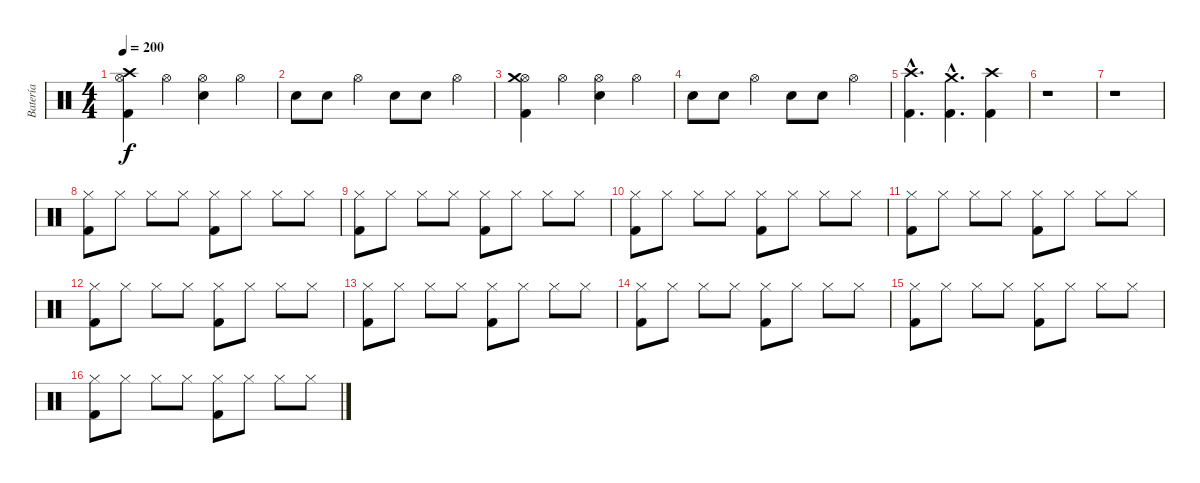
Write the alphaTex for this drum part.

\track ("Batería" "Batería") {instrument percussion}
\staff {score}
\articulation defaults
\ts (4 4)
\tempo 200
\clef neutral
\ks c
("Kick (hit) 2" "Hi-Hat (open)" "Crash high (hit)").4{dy f} "Hi-Hat (open)".4 ("Electric Snare (hit)" "Hi-Hat (open)").4 "Hi-Hat (open)".4 |
"Electric Snare (hit)".8 "Electric Snare (hit)".8 "Hi-Hat (open)".4 "Electric Snare (hit)".8 "Electric Snare (hit)".8 "Hi-Hat (open)".4 |
("Kick (hit) 2" "Hi-Hat (open)" "Crash medium (hit)").4 "Hi-Hat (open)".4 ("Electric Snare (hit)" "Hi-Hat (open)").4 "Hi-Hat (open)".4 |
"Electric Snare (hit)".8 "Electric Snare (hit)".8 "Hi-Hat (open)".4 "Electric Snare (hit)".8 "Electric Snare (hit)".8 "Hi-Hat (open)".4 |
("Kick (hit) 2"{hac} "Crash high (hit)"{hac}).4{d} ("Kick (hit) 2"{hac} "Crash medium (hit)"{hac}).4{d} ("Kick (hit) 2" "Crash high (hit)").4 |
r.1 |
r.1 |
("Kick (hit) 2" "Hi-Hat (closed)").8 "Hi-Hat (closed)".8 "Hi-Hat (closed)".8 "Hi-Hat (closed)".8 ("Kick (hit) 2" "Hi-Hat (closed)").8 "Hi-Hat (closed)".8 "Hi-Hat (closed)".8 "Hi-Hat (closed)".8 |
("Kick (hit) 2" "Hi-Hat (closed)").8 "Hi-Hat (closed)".8 "Hi-Hat (closed)".8 "Hi-Hat (closed)".8 ("Kick (hit) 2" "Hi-Hat (closed)").8 "Hi-Hat (closed)".8 "Hi-Hat (closed)".8 "Hi-Hat (closed)".8 |
("Kick (hit) 2" "Hi-Hat (closed)").8 "Hi-Hat (closed)".8 "Hi-Hat (closed)".8 "Hi-Hat (closed)".8 ("Kick (hit) 2" "Hi-Hat (closed)").8 "Hi-Hat (closed)".8 "Hi-Hat (closed)".8 "Hi-Hat (closed)".8 |
("Kick (hit) 2" "Hi-Hat (closed)").8 "Hi-Hat (closed)".8 "Hi-Hat (closed)".8 "Hi-Hat (closed)".8 ("Kick (hit) 2" "Hi-Hat (closed)").8 "Hi-Hat (closed)".8 "Hi-Hat (closed)".8 "Hi-Hat (closed)".8 |
("Kick (hit) 2" "Hi-Hat (closed)").8 "Hi-Hat (closed)".8 "Hi-Hat (closed)".8 "Hi-Hat (closed)".8 ("Kick (hit) 2" "Hi-Hat (closed)").8 "Hi-Hat (closed)".8 "Hi-Hat (closed)".8 "Hi-Hat (closed)".8 |
("Kick (hit) 2" "Hi-Hat (closed)").8 "Hi-Hat (closed)".8 "Hi-Hat (closed)".8 "Hi-Hat (closed)".8 ("Kick (hit) 2" "Hi-Hat (closed)").8 "Hi-Hat (closed)".8 "Hi-Hat (closed)".8 "Hi-Hat (closed)".8 |
("Kick (hit) 2" "Hi-Hat (closed)").8 "Hi-Hat (closed)".8 "Hi-Hat (closed)".8 "Hi-Hat (closed)".8 ("Kick (hit) 2" "Hi-Hat (closed)").8 "Hi-Hat (closed)".8 "Hi-Hat (closed)".8 "Hi-Hat (closed)".8 |
("Kick (hit) 2" "Hi-Hat (closed)").8 "Hi-Hat (closed)".8 "Hi-Hat (closed)".8 "Hi-Hat (closed)".8 ("Kick (hit) 2" "Hi-Hat (closed)").8 "Hi-Hat (closed)".8 "Hi-Hat (closed)".8 "Hi-Hat (closed)".8 |
("Kick (hit) 2" "Hi-Hat (closed)").8 "Hi-Hat (closed)".8 "Hi-Hat (closed)".8 "Hi-Hat (closed)".8 ("Kick (hit) 2" "Hi-Hat (closed)").8 "Hi-Hat (closed)".8 "Hi-Hat (closed)".8 "Hi-Hat (closed)".8
